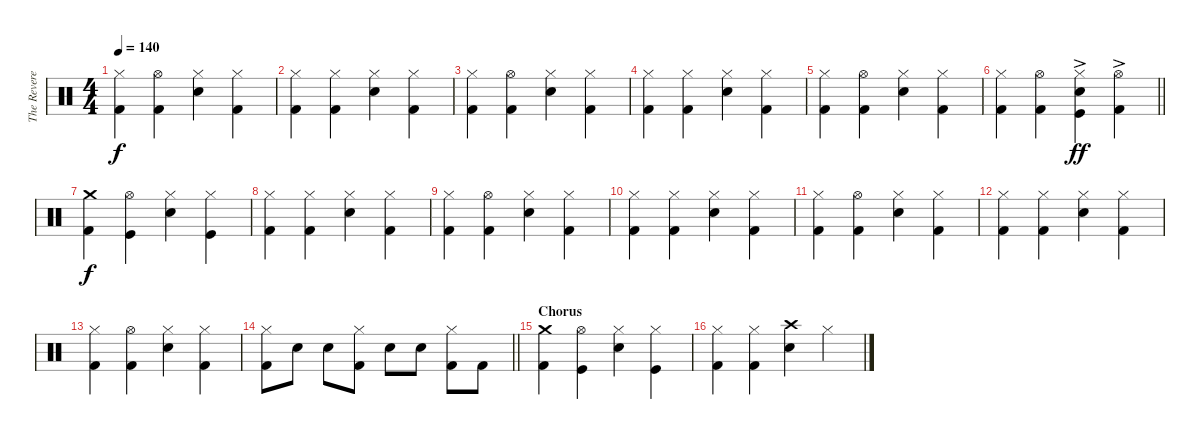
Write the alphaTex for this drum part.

\track ("The Reverend" "The Revere") {instrument percussion}
\staff {score}
\articulation defaults
\ts (4 4)
\tempo 140
\clef neutral
\ks c
("Hi-Hat (closed)" "Kick (hit) 2").4{dy f} ("Hi-Hat (open)" "Kick (hit) 2").4 ("Hi-Hat (closed)" "Snare (hit) 2").4 ("Hi-Hat (closed)" "Kick (hit) 2").4 |
("Hi-Hat (closed)" "Kick (hit) 2").4 ("Hi-Hat (closed)" "Kick (hit) 2").4 ("Hi-Hat (closed)" "Snare (hit) 2").4 ("Hi-Hat (closed)" "Kick (hit) 2").4 |
("Hi-Hat (closed)" "Kick (hit) 2").4 ("Hi-Hat (open)" "Kick (hit) 2").4 ("Hi-Hat (closed)" "Snare (hit) 2").4 ("Hi-Hat (closed)" "Kick (hit) 2").4 |
("Hi-Hat (closed)" "Kick (hit) 2").4 ("Hi-Hat (closed)" "Kick (hit) 2").4 ("Hi-Hat (closed)" "Snare (hit) 2").4 ("Hi-Hat (closed)" "Kick (hit) 2").4 |
("Hi-Hat (closed)" "Kick (hit) 2").4 ("Hi-Hat (open)" "Kick (hit) 2").4 ("Hi-Hat (closed)" "Snare (hit) 2").4 ("Hi-Hat (closed)" "Kick (hit) 2").4 |
\barLineRight lightlight
("Hi-Hat (closed)" "Kick (hit) 2").4 ("Hi-Hat (open)" "Kick (hit) 2").4 ("Hi-Hat (closed)"{ac} "Snare (hit) 2" "Kick (hit)").4{dy ff} ("Hi-Hat (open)"{ac} "Kick (hit) 2").4 |
("Crash medium (hit)" "Kick (hit) 2").4{dy f} ("Hi-Hat (open)" "Kick (hit)").4 ("Hi-Hat (closed)" "Snare (hit) 2").4 ("Hi-Hat (closed)" "Kick (hit)").4 |
("Hi-Hat (closed)" "Kick (hit) 2").4 ("Hi-Hat (closed)" "Kick (hit) 2").4 ("Hi-Hat (closed)" "Snare (hit) 2").4 ("Hi-Hat (closed)" "Kick (hit) 2").4 |
("Hi-Hat (closed)" "Kick (hit) 2").4 ("Hi-Hat (open)" "Kick (hit) 2").4 ("Hi-Hat (closed)" "Snare (hit) 2").4 ("Hi-Hat (closed)" "Kick (hit) 2").4 |
("Hi-Hat (closed)" "Kick (hit) 2").4 ("Hi-Hat (closed)" "Kick (hit) 2").4 ("Hi-Hat (closed)" "Snare (hit) 2").4 ("Hi-Hat (closed)" "Kick (hit) 2").4 |
("Hi-Hat (closed)" "Kick (hit) 2").4 ("Hi-Hat (open)" "Kick (hit) 2").4 ("Hi-Hat (closed)" "Snare (hit) 2").4 ("Hi-Hat (closed)" "Kick (hit) 2").4 |
("Hi-Hat (closed)" "Kick (hit) 2").4 ("Hi-Hat (closed)" "Kick (hit) 2").4 ("Hi-Hat (closed)" "Snare (hit) 2").4 ("Hi-Hat (closed)" "Kick (hit) 2").4 |
("Hi-Hat (closed)" "Kick (hit) 2").4 ("Hi-Hat (open)" "Kick (hit) 2").4 ("Hi-Hat (closed)" "Snare (hit) 2").4 ("Hi-Hat (closed)" "Kick (hit) 2").4 |
\barLineRight lightlight
("Hi-Hat (closed)" "Kick (hit) 2").8 "Snare (hit) 2".8 "Snare (hit) 2".8 ("Hi-Hat (closed)" "Kick (hit) 2").8 "Snare (hit) 2".8 "Snare (hit) 2".8 ("Hi-Hat (closed)" "Kick (hit) 2").8 "Kick (hit) 2".8 |
\section ("" "Chorus")
("Crash medium (hit)" "Kick (hit) 2").4 ("Hi-Hat (open)" "Kick (hit)").4 ("Hi-Hat (closed)" "Snare (hit) 2").4 ("Hi-Hat (closed)" "Kick (hit)").4 |
("Hi-Hat (closed)" "Kick (hit) 2").4 ("Hi-Hat (closed)" "Kick (hit) 2").4 ("Crash high (hit)" "Snare (hit) 2").4 "Hi-Hat (closed)".4
